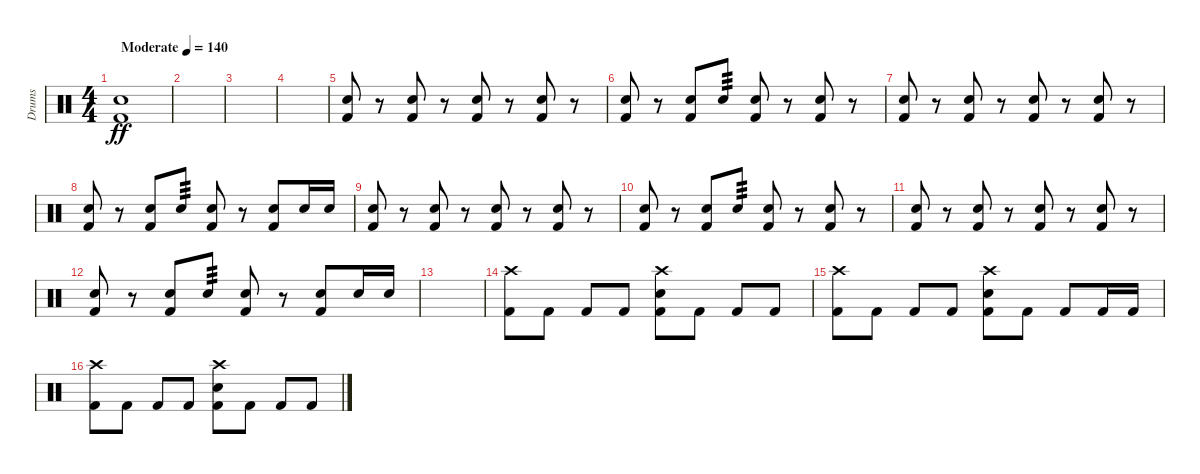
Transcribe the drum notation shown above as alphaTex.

\track ("Drums" "Drums") {instrument percussion}
\staff {score}
\articulation defaults
\ts (4 4)
\tempo (140 "Moderate")
\clef neutral
\ks c
("Snare (hit) 2" "Kick (hit) 2").1{dy ff} |
|
|
|
("Snare (hit) 2" "Kick (hit) 2").8 r.8 ("Snare (hit) 2" "Kick (hit) 2").8 r.8 ("Snare (hit) 2" "Kick (hit) 2").8 r.8 ("Snare (hit) 2" "Kick (hit) 2").8 r.8 |
("Snare (hit) 2" "Kick (hit) 2").8 r.8 ("Snare (hit) 2" "Kick (hit) 2").8 "Snare (hit) 2".8{tp 3} ("Snare (hit) 2" "Kick (hit) 2").8 r.8 ("Snare (hit) 2" "Kick (hit) 2").8 r.8 |
("Snare (hit) 2" "Kick (hit) 2").8 r.8 ("Snare (hit) 2" "Kick (hit) 2").8 r.8 ("Snare (hit) 2" "Kick (hit) 2").8 r.8 ("Snare (hit) 2" "Kick (hit) 2").8 r.8 |
("Snare (hit) 2" "Kick (hit) 2").8 r.8 ("Snare (hit) 2" "Kick (hit) 2").8 "Snare (hit) 2".8{tp 3} ("Snare (hit) 2" "Kick (hit) 2").8 r.8 ("Snare (hit) 2" "Kick (hit) 2").8 "Snare (hit) 2".16 "Snare (hit) 2".16 |
("Snare (hit) 2" "Kick (hit) 2").8 r.8 ("Snare (hit) 2" "Kick (hit) 2").8 r.8 ("Snare (hit) 2" "Kick (hit) 2").8 r.8 ("Snare (hit) 2" "Kick (hit) 2").8 r.8 |
("Snare (hit) 2" "Kick (hit) 2").8 r.8 ("Snare (hit) 2" "Kick (hit) 2").8 "Snare (hit) 2".8{tp 3} ("Snare (hit) 2" "Kick (hit) 2").8 r.8 ("Snare (hit) 2" "Kick (hit) 2").8 r.8 |
("Snare (hit) 2" "Kick (hit) 2").8 r.8 ("Snare (hit) 2" "Kick (hit) 2").8 r.8 ("Snare (hit) 2" "Kick (hit) 2").8 r.8 ("Snare (hit) 2" "Kick (hit) 2").8 r.8 |
("Snare (hit) 2" "Kick (hit) 2").8 r.8 ("Snare (hit) 2" "Kick (hit) 2").8 "Snare (hit) 2".8{tp 3} ("Snare (hit) 2" "Kick (hit) 2").8 r.8 ("Snare (hit) 2" "Kick (hit) 2").8 "Snare (hit) 2".16 "Snare (hit) 2".16 |
|
("Crash high (hit)" "Kick (hit) 2").8 "Kick (hit) 2".8 "Kick (hit) 2".8 "Kick (hit) 2".8 ("Crash high (hit)" "Snare (hit) 2" "Kick (hit) 2").8 "Kick (hit) 2".8 "Kick (hit) 2".8 "Kick (hit) 2".8 |
("Crash high (hit)" "Kick (hit) 2").8 "Kick (hit) 2".8 "Kick (hit) 2".8 "Kick (hit) 2".8 ("Crash high (hit)" "Snare (hit) 2" "Kick (hit) 2").8 "Kick (hit) 2".8 "Kick (hit) 2".8 "Kick (hit) 2".16 "Kick (hit) 2".16 |
("Crash high (hit)" "Kick (hit) 2").8 "Kick (hit) 2".8 "Kick (hit) 2".8 "Kick (hit) 2".8 ("Crash high (hit)" "Snare (hit) 2" "Kick (hit) 2").8 "Kick (hit) 2".8 "Kick (hit) 2".8 "Kick (hit) 2".8
